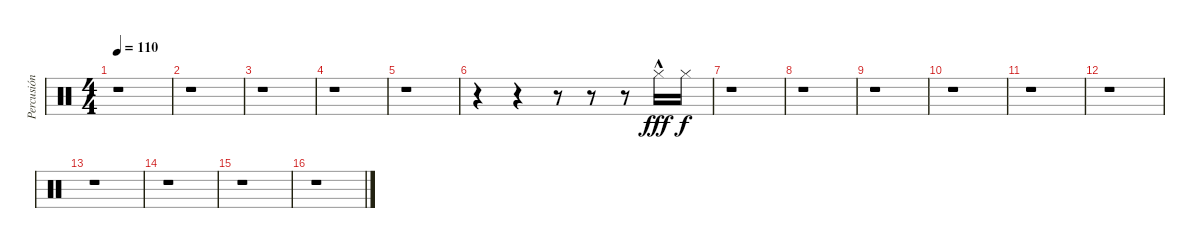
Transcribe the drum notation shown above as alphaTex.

\track ("Percusión" "Percusión") {instrument percussion}
\staff {score}
\articulation defaults
\ts (4 4)
\tempo 110
\clef neutral
\ks c
r.1{dy f} |
r.1 |
r.1 |
r.1 |
r.1 |
r.4 r.4 r.8 r.8 r.8 "Hi-Hat (closed)"{hac}.16{dy fff} "Hi-Hat (closed)".16{dy f} |
r.1 |
r.1 |
r.1 |
r.1 |
r.1 |
r.1 |
r.1 |
r.1 |
r.1 |
r.1
